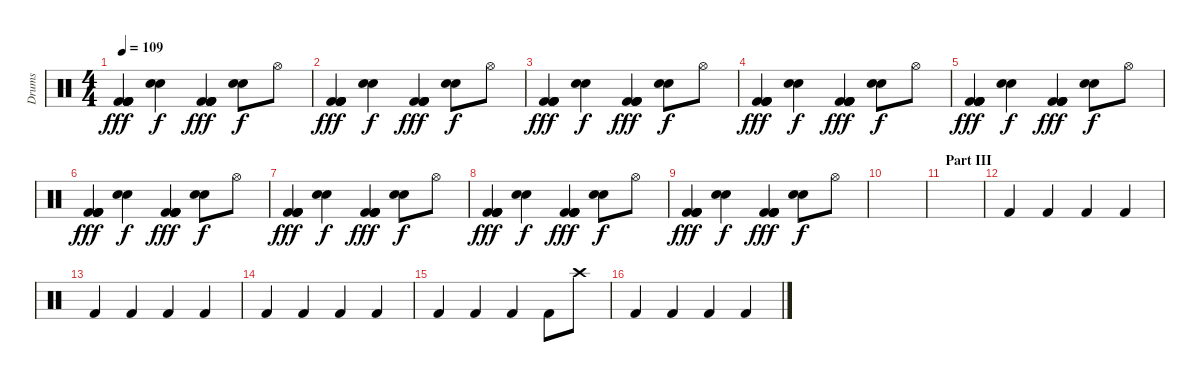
\track ("Drums" "Drums") {instrument percussion}
\staff {score}
\articulation defaults
\ts (4 4)
\tempo 109
\clef neutral
\ks c
("Kick (hit) 2" "Kick (hit) 2" "Kick (hit) 2" "Kick (hit) 2").4{dy fff volume 16} ("Snare (hit) 2" "Electric Snare (hit)").4{dy f} ("Kick (hit) 2" "Kick (hit) 2" "Kick (hit) 2" "Kick (hit) 2").4{dy fff} ("Snare (hit) 2" "Electric Snare (hit)").8{dy f} "Hi-Hat (open)".8 |
("Kick (hit) 2" "Kick (hit) 2" "Kick (hit) 2" "Kick (hit) 2").4{dy fff volume 16} ("Snare (hit) 2" "Electric Snare (hit)").4{dy f} ("Kick (hit) 2" "Kick (hit) 2" "Kick (hit) 2" "Kick (hit) 2").4{dy fff} ("Snare (hit) 2" "Electric Snare (hit)").8{dy f} "Hi-Hat (open)".8 |
("Kick (hit) 2" "Kick (hit) 2" "Kick (hit) 2" "Kick (hit) 2").4{dy fff volume 16} ("Snare (hit) 2" "Electric Snare (hit)").4{dy f} ("Kick (hit) 2" "Kick (hit) 2" "Kick (hit) 2" "Kick (hit) 2").4{dy fff} ("Snare (hit) 2" "Electric Snare (hit)").8{dy f} "Hi-Hat (open)".8 |
("Kick (hit) 2" "Kick (hit) 2" "Kick (hit) 2" "Kick (hit) 2").4{dy fff volume 16} ("Snare (hit) 2" "Electric Snare (hit)").4{dy f} ("Kick (hit) 2" "Kick (hit) 2" "Kick (hit) 2" "Kick (hit) 2").4{dy fff} ("Snare (hit) 2" "Electric Snare (hit)").8{dy f} "Hi-Hat (open)".8 |
("Kick (hit) 2" "Kick (hit) 2" "Kick (hit) 2" "Kick (hit) 2").4{dy fff volume 16} ("Snare (hit) 2" "Electric Snare (hit)").4{dy f} ("Kick (hit) 2" "Kick (hit) 2" "Kick (hit) 2" "Kick (hit) 2").4{dy fff} ("Snare (hit) 2" "Electric Snare (hit)").8{dy f} "Hi-Hat (open)".8 |
("Kick (hit) 2" "Kick (hit) 2" "Kick (hit) 2" "Kick (hit) 2").4{dy fff volume 16} ("Snare (hit) 2" "Electric Snare (hit)").4{dy f} ("Kick (hit) 2" "Kick (hit) 2" "Kick (hit) 2" "Kick (hit) 2").4{dy fff} ("Snare (hit) 2" "Electric Snare (hit)").8{dy f} "Hi-Hat (open)".8 |
("Kick (hit) 2" "Kick (hit) 2" "Kick (hit) 2" "Kick (hit) 2").4{dy fff volume 16} ("Snare (hit) 2" "Electric Snare (hit)").4{dy f} ("Kick (hit) 2" "Kick (hit) 2" "Kick (hit) 2" "Kick (hit) 2").4{dy fff} ("Snare (hit) 2" "Electric Snare (hit)").8{dy f} "Hi-Hat (open)".8 |
("Kick (hit) 2" "Kick (hit) 2" "Kick (hit) 2" "Kick (hit) 2").4{dy fff volume 16} ("Snare (hit) 2" "Electric Snare (hit)").4{dy f} ("Kick (hit) 2" "Kick (hit) 2" "Kick (hit) 2" "Kick (hit) 2").4{dy fff} ("Snare (hit) 2" "Electric Snare (hit)").8{dy f} "Hi-Hat (open)".8 |
("Kick (hit) 2" "Kick (hit) 2" "Kick (hit) 2" "Kick (hit) 2").4{dy fff volume 16} ("Snare (hit) 2" "Electric Snare (hit)").4{dy f} ("Kick (hit) 2" "Kick (hit) 2" "Kick (hit) 2" "Kick (hit) 2").4{dy fff} ("Snare (hit) 2" "Electric Snare (hit)").8{dy f} "Hi-Hat (open)".8 |
|
\section ("" "Part III")
|
"Kick (hit) 2".4 "Kick (hit) 2".4 "Kick (hit) 2".4 "Kick (hit) 2".4 |
"Kick (hit) 2".4 "Kick (hit) 2".4 "Kick (hit) 2".4 "Kick (hit) 2".4 |
"Kick (hit) 2".4 "Kick (hit) 2".4 "Kick (hit) 2".4 "Kick (hit) 2".4 |
"Kick (hit) 2".4 "Kick (hit) 2".4 "Kick (hit) 2".4 "Kick (hit) 2".8 "Crash high (hit)".8 |
"Kick (hit) 2".4 "Kick (hit) 2".4 "Kick (hit) 2".4 "Kick (hit) 2".4
